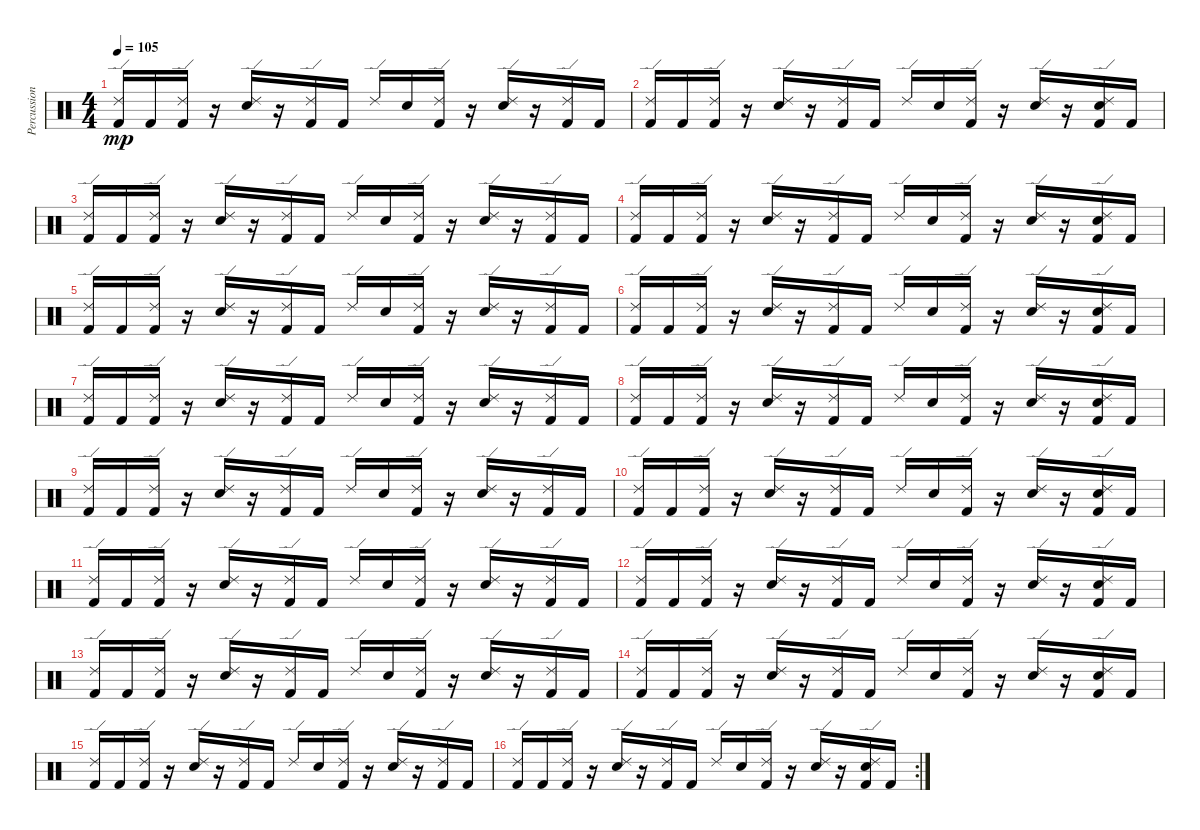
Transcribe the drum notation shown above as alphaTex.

\track ("Percussioni" "Percussion") {instrument percussion}
\staff {score}
\articulation defaults
\ts (4 4)
\tempo 105
\clef neutral
\ks c
("Ride (edge) 2" "Kick (hit) 2").16{dy mp} "Kick (hit) 2".16 ("Ride (edge) 2" "Kick (hit) 2").16 r.16 ("Ride (edge) 2" "Electric Snare (hit)").16 r.16 ("Ride (edge) 2" "Kick (hit) 2").16 "Kick (hit) 2".16 "Ride (edge) 2".16 "Electric Snare (hit)".16 ("Ride (edge) 2" "Kick (hit) 2").16 r.16 ("Ride (edge) 2" "Electric Snare (hit)").16 r.16 ("Ride (edge) 2" "Kick (hit) 2").16 "Kick (hit) 2".16 |
("Ride (edge) 2" "Kick (hit) 2").16 "Kick (hit) 2".16 ("Ride (edge) 2" "Kick (hit) 2").16 r.16 ("Ride (edge) 2" "Electric Snare (hit)").16 r.16 ("Ride (edge) 2" "Kick (hit) 2").16 "Kick (hit) 2".16 "Ride (edge) 2".16 "Electric Snare (hit)".16 ("Ride (edge) 2" "Kick (hit) 2").16 r.16 ("Ride (edge) 2" "Electric Snare (hit)").16 r.16 ("Ride (edge) 2" "Electric Snare (hit)" "Kick (hit) 2").16 "Kick (hit) 2".16 |
("Ride (edge) 2" "Kick (hit) 2").16 "Kick (hit) 2".16 ("Ride (edge) 2" "Kick (hit) 2").16 r.16 ("Ride (edge) 2" "Electric Snare (hit)").16 r.16 ("Ride (edge) 2" "Kick (hit) 2").16 "Kick (hit) 2".16 "Ride (edge) 2".16 "Electric Snare (hit)".16 ("Ride (edge) 2" "Kick (hit) 2").16 r.16 ("Ride (edge) 2" "Electric Snare (hit)").16 r.16 ("Ride (edge) 2" "Kick (hit) 2").16 "Kick (hit) 2".16 |
("Ride (edge) 2" "Kick (hit) 2").16 "Kick (hit) 2".16 ("Ride (edge) 2" "Kick (hit) 2").16 r.16 ("Ride (edge) 2" "Electric Snare (hit)").16 r.16 ("Ride (edge) 2" "Kick (hit) 2").16 "Kick (hit) 2".16 "Ride (edge) 2".16 "Electric Snare (hit)".16 ("Ride (edge) 2" "Kick (hit) 2").16 r.16 ("Ride (edge) 2" "Electric Snare (hit)").16 r.16 ("Ride (edge) 2" "Electric Snare (hit)" "Kick (hit) 2").16 "Kick (hit) 2".16 |
("Ride (edge) 2" "Kick (hit) 2").16 "Kick (hit) 2".16 ("Ride (edge) 2" "Kick (hit) 2").16 r.16 ("Ride (edge) 2" "Electric Snare (hit)").16 r.16 ("Ride (edge) 2" "Kick (hit) 2").16 "Kick (hit) 2".16 "Ride (edge) 2".16 "Electric Snare (hit)".16 ("Ride (edge) 2" "Kick (hit) 2").16 r.16 ("Ride (edge) 2" "Electric Snare (hit)").16 r.16 ("Ride (edge) 2" "Kick (hit) 2").16 "Kick (hit) 2".16 |
("Ride (edge) 2" "Kick (hit) 2").16 "Kick (hit) 2".16 ("Ride (edge) 2" "Kick (hit) 2").16 r.16 ("Ride (edge) 2" "Electric Snare (hit)").16 r.16 ("Ride (edge) 2" "Kick (hit) 2").16 "Kick (hit) 2".16 "Ride (edge) 2".16 "Electric Snare (hit)".16 ("Ride (edge) 2" "Kick (hit) 2").16 r.16 ("Ride (edge) 2" "Electric Snare (hit)").16 r.16 ("Ride (edge) 2" "Electric Snare (hit)" "Kick (hit) 2").16 "Kick (hit) 2".16 |
("Ride (edge) 2" "Kick (hit) 2").16 "Kick (hit) 2".16 ("Ride (edge) 2" "Kick (hit) 2").16 r.16 ("Ride (edge) 2" "Electric Snare (hit)").16 r.16 ("Ride (edge) 2" "Kick (hit) 2").16 "Kick (hit) 2".16 "Ride (edge) 2".16 "Electric Snare (hit)".16 ("Ride (edge) 2" "Kick (hit) 2").16 r.16 ("Ride (edge) 2" "Electric Snare (hit)").16 r.16 ("Ride (edge) 2" "Kick (hit) 2").16 "Kick (hit) 2".16 |
("Ride (edge) 2" "Kick (hit) 2").16 "Kick (hit) 2".16 ("Ride (edge) 2" "Kick (hit) 2").16 r.16 ("Ride (edge) 2" "Electric Snare (hit)").16 r.16 ("Ride (edge) 2" "Kick (hit) 2").16 "Kick (hit) 2".16 "Ride (edge) 2".16 "Electric Snare (hit)".16 ("Ride (edge) 2" "Kick (hit) 2").16 r.16 ("Ride (edge) 2" "Electric Snare (hit)").16 r.16 ("Ride (edge) 2" "Electric Snare (hit)" "Kick (hit) 2").16 "Kick (hit) 2".16 |
("Ride (edge) 2" "Kick (hit) 2").16 "Kick (hit) 2".16 ("Ride (edge) 2" "Kick (hit) 2").16 r.16 ("Ride (edge) 2" "Electric Snare (hit)").16 r.16 ("Ride (edge) 2" "Kick (hit) 2").16 "Kick (hit) 2".16 "Ride (edge) 2".16 "Electric Snare (hit)".16 ("Ride (edge) 2" "Kick (hit) 2").16 r.16 ("Ride (edge) 2" "Electric Snare (hit)").16 r.16 ("Ride (edge) 2" "Kick (hit) 2").16 "Kick (hit) 2".16 |
("Ride (edge) 2" "Kick (hit) 2").16 "Kick (hit) 2".16 ("Ride (edge) 2" "Kick (hit) 2").16 r.16 ("Ride (edge) 2" "Electric Snare (hit)").16 r.16 ("Ride (edge) 2" "Kick (hit) 2").16 "Kick (hit) 2".16 "Ride (edge) 2".16 "Electric Snare (hit)".16 ("Ride (edge) 2" "Kick (hit) 2").16 r.16 ("Ride (edge) 2" "Electric Snare (hit)").16 r.16 ("Ride (edge) 2" "Electric Snare (hit)" "Kick (hit) 2").16 "Kick (hit) 2".16 |
("Ride (edge) 2" "Kick (hit) 2").16 "Kick (hit) 2".16 ("Ride (edge) 2" "Kick (hit) 2").16 r.16 ("Ride (edge) 2" "Electric Snare (hit)").16 r.16 ("Ride (edge) 2" "Kick (hit) 2").16 "Kick (hit) 2".16 "Ride (edge) 2".16 "Electric Snare (hit)".16 ("Ride (edge) 2" "Kick (hit) 2").16 r.16 ("Ride (edge) 2" "Electric Snare (hit)").16 r.16 ("Ride (edge) 2" "Kick (hit) 2").16 "Kick (hit) 2".16 |
("Ride (edge) 2" "Kick (hit) 2").16 "Kick (hit) 2".16 ("Ride (edge) 2" "Kick (hit) 2").16 r.16 ("Ride (edge) 2" "Electric Snare (hit)").16 r.16 ("Ride (edge) 2" "Kick (hit) 2").16 "Kick (hit) 2".16 "Ride (edge) 2".16 "Electric Snare (hit)".16 ("Ride (edge) 2" "Kick (hit) 2").16 r.16 ("Ride (edge) 2" "Electric Snare (hit)").16 r.16 ("Ride (edge) 2" "Electric Snare (hit)" "Kick (hit) 2").16 "Kick (hit) 2".16 |
("Ride (edge) 2" "Kick (hit) 2").16 "Kick (hit) 2".16 ("Ride (edge) 2" "Kick (hit) 2").16 r.16 ("Ride (edge) 2" "Electric Snare (hit)").16 r.16 ("Ride (edge) 2" "Kick (hit) 2").16 "Kick (hit) 2".16 "Ride (edge) 2".16 "Electric Snare (hit)".16 ("Ride (edge) 2" "Kick (hit) 2").16 r.16 ("Ride (edge) 2" "Electric Snare (hit)").16 r.16 ("Ride (edge) 2" "Kick (hit) 2").16 "Kick (hit) 2".16 |
("Ride (edge) 2" "Kick (hit) 2").16 "Kick (hit) 2".16 ("Ride (edge) 2" "Kick (hit) 2").16 r.16 ("Ride (edge) 2" "Electric Snare (hit)").16 r.16 ("Ride (edge) 2" "Kick (hit) 2").16 "Kick (hit) 2".16 "Ride (edge) 2".16 "Electric Snare (hit)".16 ("Ride (edge) 2" "Kick (hit) 2").16 r.16 ("Ride (edge) 2" "Electric Snare (hit)").16 r.16 ("Ride (edge) 2" "Electric Snare (hit)" "Kick (hit) 2").16 "Kick (hit) 2".16 |
("Ride (edge) 2" "Kick (hit) 2").16 "Kick (hit) 2".16 ("Ride (edge) 2" "Kick (hit) 2").16 r.16 ("Ride (edge) 2" "Electric Snare (hit)").16 r.16 ("Ride (edge) 2" "Kick (hit) 2").16 "Kick (hit) 2".16 "Ride (edge) 2".16 "Electric Snare (hit)".16 ("Ride (edge) 2" "Kick (hit) 2").16 r.16 ("Ride (edge) 2" "Electric Snare (hit)").16 r.16 ("Ride (edge) 2" "Kick (hit) 2").16 "Kick (hit) 2".16 |
\rc 2
("Ride (edge) 2" "Kick (hit) 2").16 "Kick (hit) 2".16 ("Ride (edge) 2" "Kick (hit) 2").16 r.16 ("Ride (edge) 2" "Electric Snare (hit)").16 r.16 ("Ride (edge) 2" "Kick (hit) 2").16 "Kick (hit) 2".16 "Ride (edge) 2".16 "Electric Snare (hit)".16 ("Ride (edge) 2" "Kick (hit) 2").16 r.16 ("Ride (edge) 2" "Electric Snare (hit)").16 r.16 ("Ride (edge) 2" "Electric Snare (hit)" "Kick (hit) 2").16 "Kick (hit) 2".16
